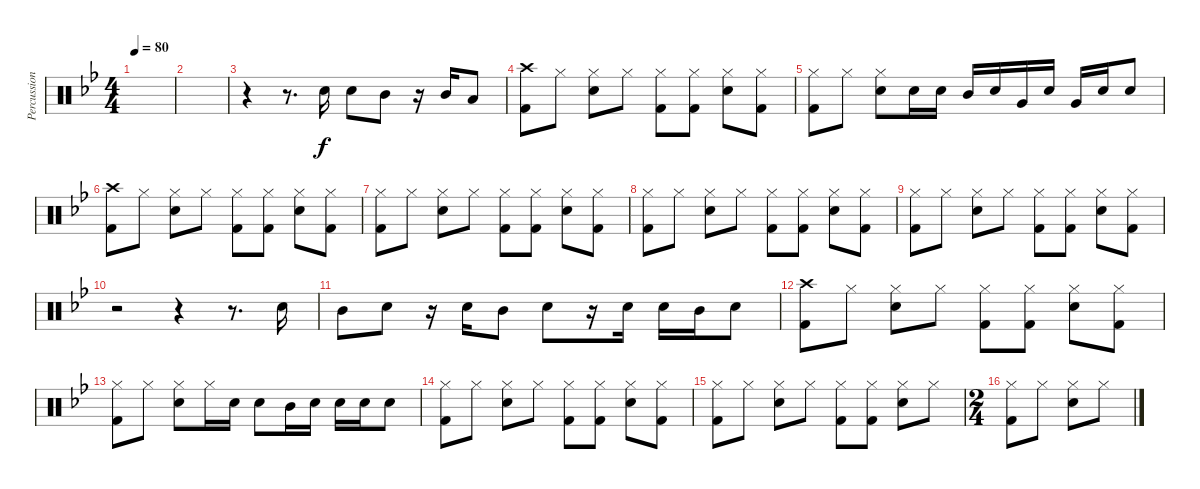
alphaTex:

\track ("Percussion" "Percussion") {instrument percussion}
\staff {score}
\articulation defaults
\ts (4 4)
\tempo 80
\clef neutral
\ks bb
|
|
r.4 r.8{d} "Snare (hit) 2".16 "Snare (hit) 2".8 "Mid Tom (hit)".8 r.16 "Mid Tom (hit)".16 "Low Floor Tom (hit)".8 |
("Crash high (hit)" "Kick (hit) 2").8 "Hi-Hat (closed)".8 ("Hi-Hat (closed)" "Snare (hit) 2").8 "Hi-Hat (closed)".8 ("Hi-Hat (closed)" "Kick (hit) 2").8 ("Hi-Hat (closed)" "Kick (hit) 2").8 ("Hi-Hat (closed)" "Snare (hit) 2").8 ("Hi-Hat (closed)" "Kick (hit) 2").8 |
("Hi-Hat (closed)" "Kick (hit) 2").8 "Hi-Hat (closed)".8 ("Hi-Hat (closed)" "Snare (hit) 2").8 "Snare (hit) 2".16 "Snare (hit) 2".16 "Mid Tom (hit)".16 "Snare (hit) 2".16 "Very Low Tom (hit)".16 "Snare (hit) 2".16 "Very Low Tom (hit)".16 "Snare (hit) 2".16 "Snare (hit) 2".8 |
("Crash high (hit)" "Kick (hit) 2").8 "Hi-Hat (closed)".8 ("Hi-Hat (closed)" "Snare (hit) 2").8 "Hi-Hat (closed)".8 ("Hi-Hat (closed)" "Kick (hit) 2").8 ("Hi-Hat (closed)" "Kick (hit) 2").8 ("Hi-Hat (closed)" "Snare (hit) 2").8 ("Hi-Hat (closed)" "Kick (hit) 2").8 |
("Hi-Hat (closed)" "Kick (hit) 2").8 "Hi-Hat (closed)".8 ("Hi-Hat (closed)" "Snare (hit) 2").8 "Hi-Hat (closed)".8 ("Hi-Hat (closed)" "Kick (hit) 2").8 ("Hi-Hat (closed)" "Kick (hit) 2").8 ("Hi-Hat (closed)" "Snare (hit) 2").8 ("Hi-Hat (closed)" "Kick (hit) 2").8 |
("Hi-Hat (closed)" "Kick (hit) 2").8 "Hi-Hat (closed)".8 ("Hi-Hat (closed)" "Snare (hit) 2").8 "Hi-Hat (closed)".8 ("Hi-Hat (closed)" "Kick (hit) 2").8 ("Hi-Hat (closed)" "Kick (hit) 2").8 ("Hi-Hat (closed)" "Snare (hit) 2").8 ("Hi-Hat (closed)" "Kick (hit) 2").8 |
("Hi-Hat (closed)" "Kick (hit) 2").8 "Hi-Hat (closed)".8 ("Hi-Hat (closed)" "Snare (hit) 2").8 "Hi-Hat (closed)".8 ("Hi-Hat (closed)" "Kick (hit) 2").8 ("Hi-Hat (closed)" "Kick (hit) 2").8 ("Hi-Hat (closed)" "Snare (hit) 2").8 ("Hi-Hat (closed)" "Kick (hit) 2").8 |
r.2 r.4 r.8{d} "Snare (hit) 2".16 |
"Mid Tom (hit)".8 "Snare (hit) 2".8 r.16 "Snare (hit) 2".16 "Mid Tom (hit)".8 "Snare (hit) 2".8 r.16 "Snare (hit) 2".16 "Snare (hit) 2".16 "Mid Tom (hit)".16 "Snare (hit) 2".8 |
("Crash high (hit)" "Kick (hit) 2").8 "Hi-Hat (closed)".8 ("Hi-Hat (closed)" "Snare (hit) 2").8 "Hi-Hat (closed)".8 ("Hi-Hat (closed)" "Kick (hit) 2").8 ("Hi-Hat (closed)" "Kick (hit) 2").8 ("Hi-Hat (closed)" "Snare (hit) 2").8 ("Hi-Hat (closed)" "Kick (hit) 2").8 |
("Hi-Hat (closed)" "Kick (hit) 2").8 "Hi-Hat (closed)".8 ("Hi-Hat (closed)" "Snare (hit) 2").8 "Hi-Hat (closed)".16 "Snare (hit) 2".16 "Snare (hit) 2".8 "Mid Tom (hit)".16 "Snare (hit) 2".16 "Snare (hit) 2".16 "Snare (hit) 2".16 "Snare (hit) 2".8 |
("Hi-Hat (closed)" "Kick (hit) 2").8 "Hi-Hat (closed)".8 ("Hi-Hat (closed)" "Snare (hit) 2").8 "Hi-Hat (closed)".8 ("Hi-Hat (closed)" "Kick (hit) 2").8 ("Hi-Hat (closed)" "Kick (hit) 2").8 ("Hi-Hat (closed)" "Snare (hit) 2").8 ("Hi-Hat (closed)" "Kick (hit) 2").8 |
("Hi-Hat (closed)" "Kick (hit) 2").8 "Hi-Hat (closed)".8 ("Hi-Hat (closed)" "Snare (hit) 2").8 "Hi-Hat (closed)".8 ("Hi-Hat (closed)" "Kick (hit) 2").8 ("Hi-Hat (closed)" "Kick (hit) 2").8 ("Hi-Hat (closed)" "Snare (hit) 2").8 "Hi-Hat (closed)".8 |
\ts (2 4)
("Hi-Hat (closed)" "Kick (hit) 2").8 "Hi-Hat (closed)".8 ("Hi-Hat (closed)" "Snare (hit) 2").8 "Hi-Hat (closed)".8
